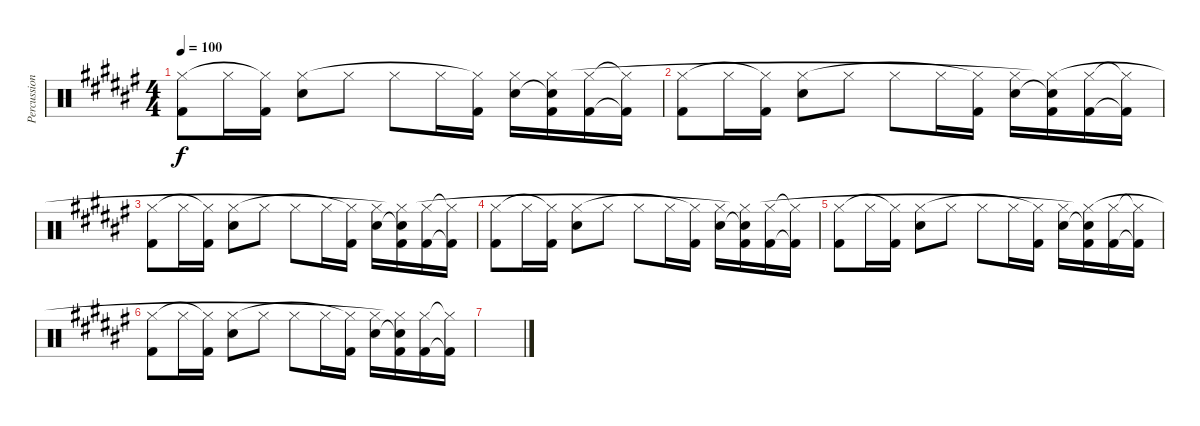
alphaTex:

\track ("Percussion" "Percussion") {instrument percussion}
\staff {score}
\articulation defaults
\ts (4 4)
\tempo 100
\clef neutral
\ks d#minor
("Kick (hit) 2" "Hi-Hat (closed)").8{dy f} "Hi-Hat (closed)".16 ("Kick (hit) 2" "Hi-Hat (closed)"{t}).16 ("Snare (hit) 2" "Hi-Hat (closed)").8 "Hi-Hat (closed)".8 "Hi-Hat (closed)".8 "Hi-Hat (closed)".16 ("Kick (hit) 2" "Hi-Hat (closed)"{t}).16 ("Snare (hit) 2" "Hi-Hat (closed)").16 ("Snare (hit) 2"{t} "Kick (hit) 2" "Hi-Hat (closed)"{t}).16 ("Kick (hit) 2" "Hi-Hat (closed)").16 ("Kick (hit) 2"{t} "Hi-Hat (closed)"{t}).16 |
("Kick (hit) 2" "Hi-Hat (closed)").8 "Hi-Hat (closed)".16 ("Kick (hit) 2" "Hi-Hat (closed)"{t}).16 ("Snare (hit) 2" "Hi-Hat (closed)").8 "Hi-Hat (closed)".8 "Hi-Hat (closed)".8 "Hi-Hat (closed)".16 ("Kick (hit) 2" "Hi-Hat (closed)"{t}).16 ("Snare (hit) 2" "Hi-Hat (closed)").16 ("Snare (hit) 2"{t} "Kick (hit) 2" "Hi-Hat (closed)"{t}).16 ("Kick (hit) 2" "Hi-Hat (closed)").16 ("Kick (hit) 2"{t} "Hi-Hat (closed)"{t}).16 |
("Kick (hit) 2" "Hi-Hat (closed)").8 "Hi-Hat (closed)".16 ("Kick (hit) 2" "Hi-Hat (closed)"{t}).16 ("Snare (hit) 2" "Hi-Hat (closed)").8 "Hi-Hat (closed)".8 "Hi-Hat (closed)".8 "Hi-Hat (closed)".16 ("Kick (hit) 2" "Hi-Hat (closed)"{t}).16 ("Snare (hit) 2" "Hi-Hat (closed)").16 ("Snare (hit) 2"{t} "Kick (hit) 2" "Hi-Hat (closed)"{t}).16 ("Kick (hit) 2" "Hi-Hat (closed)").16 ("Kick (hit) 2"{t} "Hi-Hat (closed)"{t}).16 |
\ks f#
("Kick (hit) 2" "Hi-Hat (closed)").8 "Hi-Hat (closed)".16 ("Kick (hit) 2" "Hi-Hat (closed)"{t}).16 ("Snare (hit) 2" "Hi-Hat (closed)").8 "Hi-Hat (closed)".8 "Hi-Hat (closed)".8 "Hi-Hat (closed)".16 ("Kick (hit) 2" "Hi-Hat (closed)"{t}).16 ("Snare (hit) 2" "Hi-Hat (closed)").16 ("Snare (hit) 2"{t} "Kick (hit) 2" "Hi-Hat (closed)"{t}).16 ("Kick (hit) 2" "Hi-Hat (closed)").16 ("Kick (hit) 2"{t} "Hi-Hat (closed)"{t}).16 |
\ks d#minor
("Kick (hit) 2" "Hi-Hat (closed)").8 "Hi-Hat (closed)".16 ("Kick (hit) 2" "Hi-Hat (closed)"{t}).16 ("Snare (hit) 2" "Hi-Hat (closed)").8 "Hi-Hat (closed)".8 "Hi-Hat (closed)".8 "Hi-Hat (closed)".16 ("Kick (hit) 2" "Hi-Hat (closed)"{t}).16 ("Snare (hit) 2" "Hi-Hat (closed)").16 ("Snare (hit) 2"{t} "Kick (hit) 2" "Hi-Hat (closed)"{t}).16 ("Kick (hit) 2" "Hi-Hat (closed)").16 ("Kick (hit) 2"{t} "Hi-Hat (closed)"{t}).16 |
("Kick (hit) 2" "Hi-Hat (closed)").8 "Hi-Hat (closed)".16 ("Kick (hit) 2" "Hi-Hat (closed)"{t}).16 ("Snare (hit) 2" "Hi-Hat (closed)").8 "Hi-Hat (closed)".8 "Hi-Hat (closed)".8 "Hi-Hat (closed)".16 ("Kick (hit) 2" "Hi-Hat (closed)"{t}).16 ("Snare (hit) 2" "Hi-Hat (closed)").16 ("Snare (hit) 2"{t} "Kick (hit) 2" "Hi-Hat (closed)"{t}).16 ("Kick (hit) 2" "Hi-Hat (closed)").16 ("Kick (hit) 2"{t} "Hi-Hat (closed)"{t}).16 |
\ks f#
